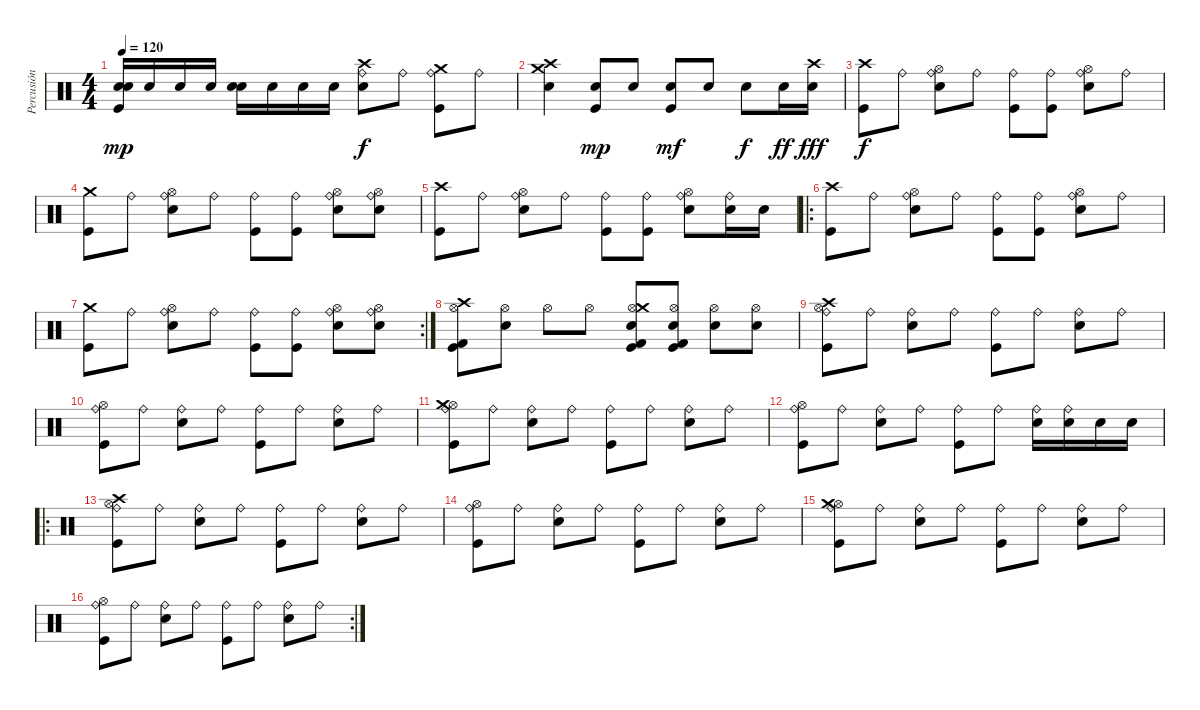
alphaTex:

\track ("Percusión" "Percusión") {instrument percussion}
\staff {score}
\articulation defaults
\ts (4 4)
\tempo 120
\clef neutral
\ks c
("Snare (hit) 2" "Electric Snare (hit)" "Kick (hit)").16{dy mp} "Snare (hit) 2".16 "Snare (hit) 2".16 "Snare (hit) 2".16 ("Snare (hit) 2" "Electric Snare (hit)").16 "Snare (hit) 2".16 "Snare (hit) 2".16 "Snare (hit) 2".16 ("Ride (bell)" "Snare (hit) 2" "Crash high (hit)").8{dy f} "Ride (bell)".8 ("Ride (bell)" "Crash medium (hit)" "Kick (hit)").8 "Ride (bell)".8 |
("Snare (hit) 2" "Crash medium (hit)" "Crash high (hit)").4 ("Snare (hit) 2" "Kick (hit)").8{dy mp} "Snare (hit) 2".8 ("Snare (hit) 2" "Kick (hit)").8{dy mf} "Snare (hit) 2".8 "Snare (hit) 2".8{dy f} "Snare (hit) 2".16{dy ff} ("Snare (hit) 2" "Crash high (hit)").16{dy fff} |
("Crash high (hit)" "Kick (hit)").8{dy f} "Ride (bell)".8 ("Ride (bell)" "Hi-Hat (open)" "Snare (hit) 2").8 "Ride (bell)".8 ("Ride (bell)" "Kick (hit)").8 ("Ride (bell)" "Kick (hit)").8 ("Ride (bell)" "Hi-Hat (open)" "Snare (hit) 2").8 "Ride (bell)".8 |
("Crash medium (hit)" "Kick (hit)").8 "Ride (bell)".8 ("Ride (bell)" "Hi-Hat (open)" "Snare (hit) 2").8 "Ride (bell)".8 ("Ride (bell)" "Kick (hit)").8 ("Ride (bell)" "Kick (hit)").8 ("Ride (bell)" "Hi-Hat (open)" "Snare (hit) 2").8 ("Ride (bell)" "Hi-Hat (open)" "Snare (hit) 2").8 |
("Crash high (hit)" "Kick (hit)").8 "Ride (bell)".8 ("Ride (bell)" "Hi-Hat (open)" "Snare (hit) 2").8 "Ride (bell)".8 ("Ride (bell)" "Kick (hit)").8 ("Ride (bell)" "Kick (hit)").8 ("Ride (bell)" "Hi-Hat (open)" "Snare (hit) 2").8 ("Ride (bell)" "Snare (hit) 2").16 "Snare (hit) 2".16 |
\ro
("Crash high (hit)" "Kick (hit)").8 "Ride (bell)".8 ("Ride (bell)" "Hi-Hat (open)" "Snare (hit) 2").8 "Ride (bell)".8 ("Ride (bell)" "Kick (hit)").8 ("Ride (bell)" "Kick (hit)").8 ("Ride (bell)" "Hi-Hat (open)" "Snare (hit) 2").8 "Ride (bell)".8 |
\rc 2
("Crash medium (hit)" "Kick (hit)").8 "Ride (bell)".8 ("Ride (bell)" "Hi-Hat (open)" "Snare (hit) 2").8 "Ride (bell)".8 ("Ride (bell)" "Kick (hit)").8 ("Ride (bell)" "Kick (hit)").8 ("Ride (bell)" "Hi-Hat (open)" "Snare (hit) 2").8 ("Ride (bell)" "Hi-Hat (open)" "Snare (hit) 2").8 |
("Hi-Hat (open)" "Crash high (hit)" "Kick (hit)" "Kick (hit) 2").8 ("Hi-Hat (open)" "Snare (hit) 2").8 "Hi-Hat (open)".8 "Hi-Hat (open)".8 ("Hi-Hat (open)" "Snare (hit) 2" "Crash medium (hit)" "Kick (hit)" "Kick (hit) 2").8 ("Hi-Hat (open)" "Snare (hit) 2" "Kick (hit)" "Kick (hit) 2").8 ("Hi-Hat (open)" "Snare (hit) 2").8 ("Hi-Hat (open)" "Snare (hit) 2").8 |
("Ride (bell)" "Hi-Hat (open)" "Crash high (hit)" "Kick (hit)").8 "Ride (bell)".8 ("Ride (bell)" "Snare (hit) 2").8 "Ride (bell)".8 ("Ride (bell)" "Kick (hit)").8 "Ride (bell)".8 ("Ride (bell)" "Snare (hit) 2").8 "Ride (bell)".8 |
("Ride (bell)" "Hi-Hat (open)" "Kick (hit)").8 "Ride (bell)".8 ("Ride (bell)" "Snare (hit) 2").8 "Ride (bell)".8 ("Ride (bell)" "Kick (hit)").8 "Ride (bell)".8 ("Ride (bell)" "Snare (hit) 2").8 "Ride (bell)".8 |
("Ride (bell)" "Hi-Hat (open)" "Crash medium (hit)" "Kick (hit)").8 "Ride (bell)".8 ("Ride (bell)" "Snare (hit) 2").8 "Ride (bell)".8 ("Ride (bell)" "Kick (hit)").8 "Ride (bell)".8 ("Ride (bell)" "Snare (hit) 2").8 "Ride (bell)".8 |
("Ride (bell)" "Hi-Hat (open)" "Kick (hit)").8 "Ride (bell)".8 ("Ride (bell)" "Snare (hit) 2").8 "Ride (bell)".8 ("Ride (bell)" "Kick (hit)").8 "Ride (bell)".8 ("Ride (bell)" "Snare (hit) 2").16 ("Ride (bell)" "Snare (hit) 2").16 "Snare (hit) 2".16 "Snare (hit) 2".16 |
\ro
("Ride (bell)" "Hi-Hat (open)" "Crash high (hit)" "Kick (hit)").8 "Ride (bell)".8 ("Ride (bell)" "Snare (hit) 2").8 "Ride (bell)".8 ("Ride (bell)" "Kick (hit)").8 "Ride (bell)".8 ("Ride (bell)" "Snare (hit) 2").8 "Ride (bell)".8 |
("Ride (bell)" "Hi-Hat (open)" "Kick (hit)").8 "Ride (bell)".8 ("Ride (bell)" "Snare (hit) 2").8 "Ride (bell)".8 ("Ride (bell)" "Kick (hit)").8 "Ride (bell)".8 ("Ride (bell)" "Snare (hit) 2").8 "Ride (bell)".8 |
("Ride (bell)" "Hi-Hat (open)" "Crash medium (hit)" "Kick (hit)").8 "Ride (bell)".8 ("Ride (bell)" "Snare (hit) 2").8 "Ride (bell)".8 ("Ride (bell)" "Kick (hit)").8 "Ride (bell)".8 ("Ride (bell)" "Snare (hit) 2").8 "Ride (bell)".8 |
\rc 2
("Ride (bell)" "Hi-Hat (open)" "Kick (hit)").8 "Ride (bell)".8 ("Ride (bell)" "Snare (hit) 2").8 "Ride (bell)".8 ("Ride (bell)" "Kick (hit)").8 "Ride (bell)".8 ("Ride (bell)" "Snare (hit) 2").8 "Ride (bell)".8
